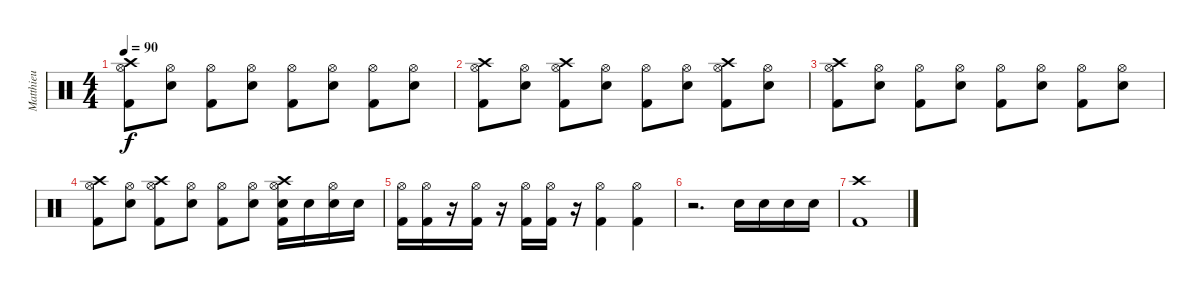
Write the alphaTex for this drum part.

\track ("Matthieu" "Matthieu") {instrument percussion}
\staff {score}
\articulation defaults
\ts (4 4)
\tempo 90
\clef neutral
\ks c
("Crash high (hit)" "Hi-Hat (open)" "Kick (hit) 2").8{dy f} ("Hi-Hat (open)" "Electric Snare (hit)").8 ("Hi-Hat (open)" "Kick (hit) 2").8 ("Hi-Hat (open)" "Electric Snare (hit)").8 ("Hi-Hat (open)" "Kick (hit) 2").8 ("Hi-Hat (open)" "Electric Snare (hit)").8 ("Hi-Hat (open)" "Kick (hit) 2").8 ("Hi-Hat (open)" "Electric Snare (hit)").8 |
("Crash high (hit)" "Hi-Hat (open)" "Kick (hit) 2").8 ("Hi-Hat (open)" "Electric Snare (hit)").8 ("Crash high (hit)" "Hi-Hat (open)" "Kick (hit) 2").8 ("Hi-Hat (open)" "Electric Snare (hit)").8 ("Hi-Hat (open)" "Kick (hit) 2").8 ("Hi-Hat (open)" "Electric Snare (hit)").8 ("Crash high (hit)" "Hi-Hat (open)" "Kick (hit) 2").8 ("Hi-Hat (open)" "Electric Snare (hit)").8 |
("Crash high (hit)" "Hi-Hat (open)" "Kick (hit) 2").8 ("Hi-Hat (open)" "Electric Snare (hit)").8 ("Hi-Hat (open)" "Kick (hit) 2").8 ("Hi-Hat (open)" "Electric Snare (hit)").8 ("Hi-Hat (open)" "Kick (hit) 2").8 ("Hi-Hat (open)" "Electric Snare (hit)").8 ("Hi-Hat (open)" "Kick (hit) 2").8 ("Hi-Hat (open)" "Electric Snare (hit)").8 |
("Crash high (hit)" "Hi-Hat (open)" "Kick (hit) 2").8 ("Hi-Hat (open)" "Electric Snare (hit)").8 ("Crash high (hit)" "Hi-Hat (open)" "Kick (hit) 2").8 ("Hi-Hat (open)" "Electric Snare (hit)").8 ("Hi-Hat (open)" "Kick (hit) 2").8 ("Hi-Hat (open)" "Electric Snare (hit)").8 ("Crash high (hit)" "Hi-Hat (open)" "Electric Snare (hit)" "Kick (hit) 2").16 "Electric Snare (hit)".16 ("Hi-Hat (open)" "Electric Snare (hit)").16 "Electric Snare (hit)".16 |
("Hi-Hat (open)" "Kick (hit) 2").16 ("Hi-Hat (open)" "Kick (hit) 2").16 r.16 ("Hi-Hat (open)" "Kick (hit) 2").16 r.16 ("Hi-Hat (open)" "Kick (hit) 2").16 ("Hi-Hat (open)" "Kick (hit) 2").16 r.16 ("Hi-Hat (open)" "Kick (hit) 2").4 ("Hi-Hat (open)" "Kick (hit) 2").4 |
r.2{d} "Electric Snare (hit)".16 "Electric Snare (hit)".16 "Electric Snare (hit)".16 "Electric Snare (hit)".16 |
("Crash high (hit)" "Kick (hit) 2").1
